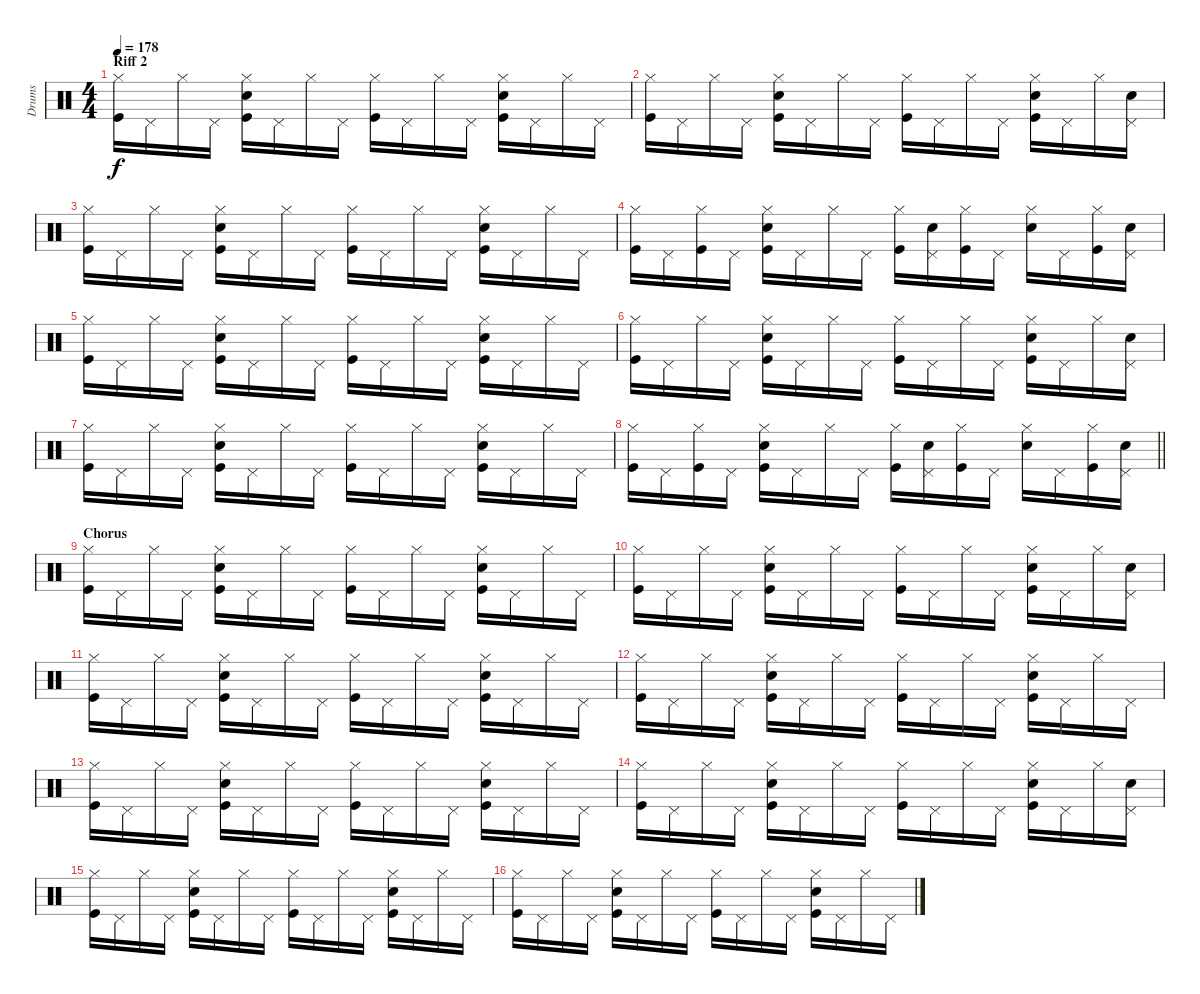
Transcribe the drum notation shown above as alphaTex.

\track ("Drums" "Drums") {instrument percussion}
\staff {score}
\articulation defaults
\ts (4 4)
\section ("" "Riff 2")
\tempo 178
\clef neutral
\ks c
("Kick (hit)" "Hi-Hat (closed)").16{dy f} "Pedal Hi-Hat (hit)".16 "Hi-Hat (closed)".16 "Pedal Hi-Hat (hit)".16 ("Kick (hit)" "Electric Snare (hit)" "Hi-Hat (closed)").16 "Pedal Hi-Hat (hit)".16 "Hi-Hat (closed)".16 "Pedal Hi-Hat (hit)".16 ("Kick (hit)" "Hi-Hat (closed)").16 "Pedal Hi-Hat (hit)".16 "Hi-Hat (closed)".16 "Pedal Hi-Hat (hit)".16 ("Kick (hit)" "Electric Snare (hit)" "Hi-Hat (closed)").16 "Pedal Hi-Hat (hit)".16 "Hi-Hat (closed)".16 "Pedal Hi-Hat (hit)".16 |
("Kick (hit)" "Hi-Hat (closed)").16 "Pedal Hi-Hat (hit)".16 "Hi-Hat (closed)".16 "Pedal Hi-Hat (hit)".16 ("Kick (hit)" "Electric Snare (hit)" "Hi-Hat (closed)").16 "Pedal Hi-Hat (hit)".16 "Hi-Hat (closed)".16 "Pedal Hi-Hat (hit)".16 ("Kick (hit)" "Hi-Hat (closed)").16 "Pedal Hi-Hat (hit)".16 "Hi-Hat (closed)".16 "Pedal Hi-Hat (hit)".16 ("Kick (hit)" "Electric Snare (hit)" "Hi-Hat (closed)").16 "Pedal Hi-Hat (hit)".16 "Hi-Hat (closed)".16 ("Electric Snare (hit)" "Pedal Hi-Hat (hit)").16 |
("Kick (hit)" "Hi-Hat (closed)").16 "Pedal Hi-Hat (hit)".16 "Hi-Hat (closed)".16 "Pedal Hi-Hat (hit)".16 ("Kick (hit)" "Electric Snare (hit)" "Hi-Hat (closed)").16 "Pedal Hi-Hat (hit)".16 "Hi-Hat (closed)".16 "Pedal Hi-Hat (hit)".16 ("Kick (hit)" "Hi-Hat (closed)").16 "Pedal Hi-Hat (hit)".16 "Hi-Hat (closed)".16 "Pedal Hi-Hat (hit)".16 ("Kick (hit)" "Electric Snare (hit)" "Hi-Hat (closed)").16 "Pedal Hi-Hat (hit)".16 "Hi-Hat (closed)".16 "Pedal Hi-Hat (hit)".16 |
("Kick (hit)" "Hi-Hat (closed)").16 "Pedal Hi-Hat (hit)".16 ("Kick (hit)" "Hi-Hat (closed)").16 "Pedal Hi-Hat (hit)".16 ("Kick (hit)" "Electric Snare (hit)" "Hi-Hat (closed)").16 "Pedal Hi-Hat (hit)".16 "Hi-Hat (closed)".16 "Pedal Hi-Hat (hit)".16 ("Kick (hit)" "Hi-Hat (closed)").16 ("Electric Snare (hit)" "Pedal Hi-Hat (hit)").16 ("Kick (hit)" "Hi-Hat (closed)").16 "Pedal Hi-Hat (hit)".16 ("Electric Snare (hit)" "Hi-Hat (closed)").16 "Pedal Hi-Hat (hit)".16 ("Kick (hit)" "Hi-Hat (closed)").16 ("Electric Snare (hit)" "Pedal Hi-Hat (hit)").16 |
("Kick (hit)" "Hi-Hat (closed)").16 "Pedal Hi-Hat (hit)".16 "Hi-Hat (closed)".16 "Pedal Hi-Hat (hit)".16 ("Kick (hit)" "Electric Snare (hit)" "Hi-Hat (closed)").16 "Pedal Hi-Hat (hit)".16 "Hi-Hat (closed)".16 "Pedal Hi-Hat (hit)".16 ("Kick (hit)" "Hi-Hat (closed)").16 "Pedal Hi-Hat (hit)".16 "Hi-Hat (closed)".16 "Pedal Hi-Hat (hit)".16 ("Kick (hit)" "Electric Snare (hit)" "Hi-Hat (closed)").16 "Pedal Hi-Hat (hit)".16 "Hi-Hat (closed)".16 "Pedal Hi-Hat (hit)".16 |
("Kick (hit)" "Hi-Hat (closed)").16 "Pedal Hi-Hat (hit)".16 "Hi-Hat (closed)".16 "Pedal Hi-Hat (hit)".16 ("Kick (hit)" "Electric Snare (hit)" "Hi-Hat (closed)").16 "Pedal Hi-Hat (hit)".16 "Hi-Hat (closed)".16 "Pedal Hi-Hat (hit)".16 ("Kick (hit)" "Hi-Hat (closed)").16 "Pedal Hi-Hat (hit)".16 "Hi-Hat (closed)".16 "Pedal Hi-Hat (hit)".16 ("Kick (hit)" "Electric Snare (hit)" "Hi-Hat (closed)").16 "Pedal Hi-Hat (hit)".16 "Hi-Hat (closed)".16 ("Electric Snare (hit)" "Pedal Hi-Hat (hit)").16 |
("Kick (hit)" "Hi-Hat (closed)").16 "Pedal Hi-Hat (hit)".16 "Hi-Hat (closed)".16 "Pedal Hi-Hat (hit)".16 ("Kick (hit)" "Electric Snare (hit)" "Hi-Hat (closed)").16 "Pedal Hi-Hat (hit)".16 "Hi-Hat (closed)".16 "Pedal Hi-Hat (hit)".16 ("Kick (hit)" "Hi-Hat (closed)").16 "Pedal Hi-Hat (hit)".16 "Hi-Hat (closed)".16 "Pedal Hi-Hat (hit)".16 ("Kick (hit)" "Electric Snare (hit)" "Hi-Hat (closed)").16 "Pedal Hi-Hat (hit)".16 "Hi-Hat (closed)".16 "Pedal Hi-Hat (hit)".16 |
\barLineRight lightlight
("Kick (hit)" "Hi-Hat (closed)").16 "Pedal Hi-Hat (hit)".16 ("Kick (hit)" "Hi-Hat (closed)").16 "Pedal Hi-Hat (hit)".16 ("Kick (hit)" "Electric Snare (hit)" "Hi-Hat (closed)").16 "Pedal Hi-Hat (hit)".16 "Hi-Hat (closed)".16 "Pedal Hi-Hat (hit)".16 ("Kick (hit)" "Hi-Hat (closed)").16 ("Electric Snare (hit)" "Pedal Hi-Hat (hit)").16 ("Kick (hit)" "Hi-Hat (closed)").16 "Pedal Hi-Hat (hit)".16 ("Electric Snare (hit)" "Hi-Hat (closed)").16 "Pedal Hi-Hat (hit)".16 ("Kick (hit)" "Hi-Hat (closed)").16 ("Electric Snare (hit)" "Pedal Hi-Hat (hit)").16 |
\section ("" "Chorus")
("Kick (hit)" "Hi-Hat (closed)").16 "Pedal Hi-Hat (hit)".16 "Hi-Hat (closed)".16 "Pedal Hi-Hat (hit)".16 ("Kick (hit)" "Electric Snare (hit)" "Hi-Hat (closed)").16 "Pedal Hi-Hat (hit)".16 "Hi-Hat (closed)".16 "Pedal Hi-Hat (hit)".16 ("Kick (hit)" "Hi-Hat (closed)").16 "Pedal Hi-Hat (hit)".16 "Hi-Hat (closed)".16 "Pedal Hi-Hat (hit)".16 ("Kick (hit)" "Electric Snare (hit)" "Hi-Hat (closed)").16 "Pedal Hi-Hat (hit)".16 "Hi-Hat (closed)".16 "Pedal Hi-Hat (hit)".16 |
("Kick (hit)" "Hi-Hat (closed)").16 "Pedal Hi-Hat (hit)".16 "Hi-Hat (closed)".16 "Pedal Hi-Hat (hit)".16 ("Kick (hit)" "Electric Snare (hit)" "Hi-Hat (closed)").16 "Pedal Hi-Hat (hit)".16 "Hi-Hat (closed)".16 "Pedal Hi-Hat (hit)".16 ("Kick (hit)" "Hi-Hat (closed)").16 "Pedal Hi-Hat (hit)".16 "Hi-Hat (closed)".16 "Pedal Hi-Hat (hit)".16 ("Kick (hit)" "Electric Snare (hit)" "Hi-Hat (closed)").16 "Pedal Hi-Hat (hit)".16 "Hi-Hat (closed)".16 ("Electric Snare (hit)" "Pedal Hi-Hat (hit)").16 |
("Kick (hit)" "Hi-Hat (closed)").16 "Pedal Hi-Hat (hit)".16 "Hi-Hat (closed)".16 "Pedal Hi-Hat (hit)".16 ("Kick (hit)" "Electric Snare (hit)" "Hi-Hat (closed)").16 "Pedal Hi-Hat (hit)".16 "Hi-Hat (closed)".16 "Pedal Hi-Hat (hit)".16 ("Kick (hit)" "Hi-Hat (closed)").16 "Pedal Hi-Hat (hit)".16 "Hi-Hat (closed)".16 "Pedal Hi-Hat (hit)".16 ("Kick (hit)" "Electric Snare (hit)" "Hi-Hat (closed)").16 "Pedal Hi-Hat (hit)".16 "Hi-Hat (closed)".16 "Pedal Hi-Hat (hit)".16 |
("Kick (hit)" "Hi-Hat (closed)").16 "Pedal Hi-Hat (hit)".16 "Hi-Hat (closed)".16 "Pedal Hi-Hat (hit)".16 ("Kick (hit)" "Electric Snare (hit)" "Hi-Hat (closed)").16 "Pedal Hi-Hat (hit)".16 "Hi-Hat (closed)".16 "Pedal Hi-Hat (hit)".16 ("Kick (hit)" "Hi-Hat (closed)").16 "Pedal Hi-Hat (hit)".16 "Hi-Hat (closed)".16 "Pedal Hi-Hat (hit)".16 ("Kick (hit)" "Electric Snare (hit)" "Hi-Hat (closed)").16 "Pedal Hi-Hat (hit)".16 "Hi-Hat (closed)".16 "Pedal Hi-Hat (hit)".16 |
("Kick (hit)" "Hi-Hat (closed)").16 "Pedal Hi-Hat (hit)".16 "Hi-Hat (closed)".16 "Pedal Hi-Hat (hit)".16 ("Kick (hit)" "Electric Snare (hit)" "Hi-Hat (closed)").16 "Pedal Hi-Hat (hit)".16 "Hi-Hat (closed)".16 "Pedal Hi-Hat (hit)".16 ("Kick (hit)" "Hi-Hat (closed)").16 "Pedal Hi-Hat (hit)".16 "Hi-Hat (closed)".16 "Pedal Hi-Hat (hit)".16 ("Kick (hit)" "Electric Snare (hit)" "Hi-Hat (closed)").16 "Pedal Hi-Hat (hit)".16 "Hi-Hat (closed)".16 "Pedal Hi-Hat (hit)".16 |
("Kick (hit)" "Hi-Hat (closed)").16 "Pedal Hi-Hat (hit)".16 "Hi-Hat (closed)".16 "Pedal Hi-Hat (hit)".16 ("Kick (hit)" "Electric Snare (hit)" "Hi-Hat (closed)").16 "Pedal Hi-Hat (hit)".16 "Hi-Hat (closed)".16 "Pedal Hi-Hat (hit)".16 ("Kick (hit)" "Hi-Hat (closed)").16 "Pedal Hi-Hat (hit)".16 "Hi-Hat (closed)".16 "Pedal Hi-Hat (hit)".16 ("Kick (hit)" "Electric Snare (hit)" "Hi-Hat (closed)").16 "Pedal Hi-Hat (hit)".16 "Hi-Hat (closed)".16 ("Electric Snare (hit)" "Pedal Hi-Hat (hit)").16 |
("Kick (hit)" "Hi-Hat (closed)").16 "Pedal Hi-Hat (hit)".16 "Hi-Hat (closed)".16 "Pedal Hi-Hat (hit)".16 ("Kick (hit)" "Electric Snare (hit)" "Hi-Hat (closed)").16 "Pedal Hi-Hat (hit)".16 "Hi-Hat (closed)".16 "Pedal Hi-Hat (hit)".16 ("Kick (hit)" "Hi-Hat (closed)").16 "Pedal Hi-Hat (hit)".16 "Hi-Hat (closed)".16 "Pedal Hi-Hat (hit)".16 ("Kick (hit)" "Electric Snare (hit)" "Hi-Hat (closed)").16 "Pedal Hi-Hat (hit)".16 "Hi-Hat (closed)".16 "Pedal Hi-Hat (hit)".16 |
("Kick (hit)" "Hi-Hat (closed)").16 "Pedal Hi-Hat (hit)".16 "Hi-Hat (closed)".16 "Pedal Hi-Hat (hit)".16 ("Kick (hit)" "Electric Snare (hit)" "Hi-Hat (closed)").16 "Pedal Hi-Hat (hit)".16 "Hi-Hat (closed)".16 "Pedal Hi-Hat (hit)".16 ("Kick (hit)" "Hi-Hat (closed)").16 "Pedal Hi-Hat (hit)".16 "Hi-Hat (closed)".16 "Pedal Hi-Hat (hit)".16 ("Kick (hit)" "Electric Snare (hit)" "Hi-Hat (closed)").16 "Pedal Hi-Hat (hit)".16 "Hi-Hat (closed)".16 "Pedal Hi-Hat (hit)".16
